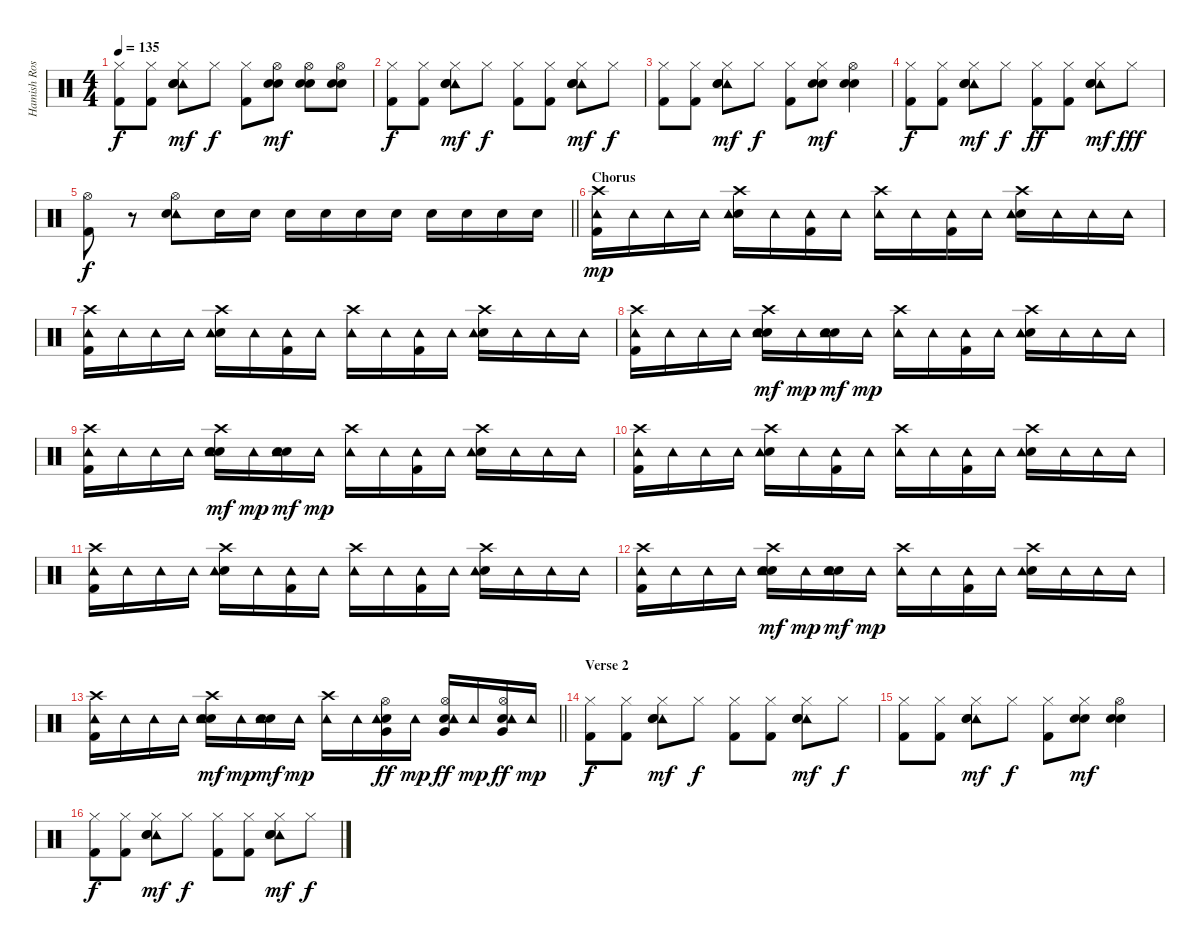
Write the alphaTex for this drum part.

\track ("Hamish Rosser (Drums Track)" "Hamish Ros") {instrument percussion}
\staff {score}
\articulation defaults
\ts (4 4)
\tempo 135
\clef neutral
\ks c
("Hi-Hat (closed)" "Kick (hit) 2").8{dy f} ("Hi-Hat (closed)" "Kick (hit) 2").8 ("Hi-Hat (closed)" "Tambourine (hit)" "Electric Snare (hit)" "Hand Clap (hit)").8{dy mf} "Hi-Hat (closed)".8{dy f} ("Hi-Hat (closed)" "Kick (hit) 2").8 ("Hi-Hat (open)" "Electric Snare (hit)" "Hand Clap (hit)").8{dy mf} ("Hi-Hat (open)" "Electric Snare (hit)" "Hand Clap (hit)").8 ("Hi-Hat (open)" "Electric Snare (hit)" "Hand Clap (hit)").8 |
("Hi-Hat (closed)" "Kick (hit) 2").8{dy f} ("Hi-Hat (closed)" "Kick (hit) 2").8 ("Hi-Hat (closed)" "Tambourine (hit)" "Electric Snare (hit)" "Hand Clap (hit)").8{dy mf} "Hi-Hat (closed)".8{dy f} ("Hi-Hat (closed)" "Kick (hit) 2").8 ("Hi-Hat (closed)" "Kick (hit) 2").8 ("Hi-Hat (closed)" "Tambourine (hit)" "Electric Snare (hit)" "Hand Clap (hit)").8{dy mf} "Hi-Hat (closed)".8{dy f} |
("Hi-Hat (closed)" "Kick (hit) 2").8 ("Hi-Hat (closed)" "Kick (hit) 2").8 ("Hi-Hat (closed)" "Tambourine (hit)" "Electric Snare (hit)" "Hand Clap (hit)").8{dy mf} "Hi-Hat (closed)".8{dy f} ("Hi-Hat (closed)" "Kick (hit) 2").8 ("Hi-Hat (closed)" "Electric Snare (hit)" "Hand Clap (hit)").8{dy mf} ("Hi-Hat (open)" "Electric Snare (hit)" "Hand Clap (hit)").4 |
("Hi-Hat (closed)" "Kick (hit) 2").8{dy f} ("Hi-Hat (closed)" "Kick (hit) 2").8 ("Hi-Hat (closed)" "Tambourine (hit)" "Electric Snare (hit)" "Hand Clap (hit)").8{dy mf} "Hi-Hat (closed)".8{dy f} ("Hi-Hat (closed)" "Kick (hit) 2").8{dy ff} ("Hi-Hat (closed)" "Kick (hit) 2").8 ("Hi-Hat (closed)" "Tambourine (hit)" "Electric Snare (hit)" "Hand Clap (hit)").8{dy mf} "Hi-Hat (closed)".8{dy fff} |
\barLineRight lightlight
("Hi-Hat (open)" "Kick (hit) 2").8{dy f} r.8 ("Hi-Hat (open)" "Tambourine (hit)" "Electric Snare (hit)").8 "Electric Snare (hit)".16 "Electric Snare (hit)".16 "Electric Snare (hit)".16 "Electric Snare (hit)".16 "Electric Snare (hit)".16 "Electric Snare (hit)".16 "Electric Snare (hit)".16 "Electric Snare (hit)".16 "Electric Snare (hit)".16 "Electric Snare (hit)".16 |
\section ("" "Chorus")
("Crash high (hit)" "Tambourine (hit)" "Kick (hit) 2").16{dy mp} "Tambourine (hit)".16 "Tambourine (hit)".16 "Tambourine (hit)".16 ("Crash high (hit)" "Electric Snare (hit)" "Tambourine (hit)").16 "Tambourine (hit)".16 ("Tambourine (hit)" "Kick (hit) 2").16 "Tambourine (hit)".16 ("Crash high (hit)" "Tambourine (hit)").16 "Tambourine (hit)".16 ("Tambourine (hit)" "Kick (hit) 2").16 "Tambourine (hit)".16 ("Crash high (hit)" "Electric Snare (hit)" "Tambourine (hit)").16 "Tambourine (hit)".16 "Tambourine (hit)".16 "Tambourine (hit)".16 |
("Crash high (hit)" "Tambourine (hit)" "Kick (hit) 2").16 "Tambourine (hit)".16 "Tambourine (hit)".16 "Tambourine (hit)".16 ("Crash high (hit)" "Electric Snare (hit)" "Tambourine (hit)").16 "Tambourine (hit)".16 ("Tambourine (hit)" "Kick (hit) 2").16 "Tambourine (hit)".16 ("Crash high (hit)" "Tambourine (hit)").16 "Tambourine (hit)".16 ("Tambourine (hit)" "Kick (hit) 2").16 "Tambourine (hit)".16 ("Crash high (hit)" "Electric Snare (hit)" "Tambourine (hit)").16 "Tambourine (hit)".16 "Tambourine (hit)".16 "Tambourine (hit)".16 |
("Crash high (hit)" "Tambourine (hit)" "Kick (hit) 2").16 "Tambourine (hit)".16 "Tambourine (hit)".16 "Tambourine (hit)".16 ("Crash high (hit)" "Electric Snare (hit)" "Tambourine (hit)" "Hand Clap (hit)").16{dy mf} "Tambourine (hit)".16{dy mp} ("Electric Snare (hit)" "Tambourine (hit)" "Hand Clap (hit)").16{dy mf} "Tambourine (hit)".16{dy mp} ("Crash high (hit)" "Tambourine (hit)").16 "Tambourine (hit)".16 ("Tambourine (hit)" "Kick (hit) 2").16 "Tambourine (hit)".16 ("Crash high (hit)" "Electric Snare (hit)" "Tambourine (hit)").16 "Tambourine (hit)".16 "Tambourine (hit)".16 "Tambourine (hit)".16 |
("Crash high (hit)" "Tambourine (hit)" "Kick (hit) 2").16 "Tambourine (hit)".16 "Tambourine (hit)".16 "Tambourine (hit)".16 ("Crash high (hit)" "Electric Snare (hit)" "Tambourine (hit)" "Hand Clap (hit)").16{dy mf} "Tambourine (hit)".16{dy mp} ("Electric Snare (hit)" "Tambourine (hit)" "Hand Clap (hit)").16{dy mf} "Tambourine (hit)".16{dy mp} ("Crash high (hit)" "Tambourine (hit)").16 "Tambourine (hit)".16 ("Tambourine (hit)" "Kick (hit) 2").16 "Tambourine (hit)".16 ("Crash high (hit)" "Electric Snare (hit)" "Tambourine (hit)").16 "Tambourine (hit)".16 "Tambourine (hit)".16 "Tambourine (hit)".16 |
("Crash high (hit)" "Tambourine (hit)" "Kick (hit) 2").16 "Tambourine (hit)".16 "Tambourine (hit)".16 "Tambourine (hit)".16 ("Crash high (hit)" "Electric Snare (hit)" "Tambourine (hit)").16 "Tambourine (hit)".16 ("Tambourine (hit)" "Kick (hit) 2").16 "Tambourine (hit)".16 ("Crash high (hit)" "Tambourine (hit)").16 "Tambourine (hit)".16 ("Tambourine (hit)" "Kick (hit) 2").16 "Tambourine (hit)".16 ("Crash high (hit)" "Electric Snare (hit)" "Tambourine (hit)").16 "Tambourine (hit)".16 "Tambourine (hit)".16 "Tambourine (hit)".16 |
("Crash high (hit)" "Tambourine (hit)" "Kick (hit) 2").16 "Tambourine (hit)".16 "Tambourine (hit)".16 "Tambourine (hit)".16 ("Crash high (hit)" "Electric Snare (hit)" "Tambourine (hit)").16 "Tambourine (hit)".16 ("Tambourine (hit)" "Kick (hit) 2").16 "Tambourine (hit)".16 ("Crash high (hit)" "Tambourine (hit)").16 "Tambourine (hit)".16 ("Tambourine (hit)" "Kick (hit) 2").16 "Tambourine (hit)".16 ("Crash high (hit)" "Electric Snare (hit)" "Tambourine (hit)").16 "Tambourine (hit)".16 "Tambourine (hit)".16 "Tambourine (hit)".16 |
("Crash high (hit)" "Tambourine (hit)" "Kick (hit) 2").16 "Tambourine (hit)".16 "Tambourine (hit)".16 "Tambourine (hit)".16 ("Crash high (hit)" "Electric Snare (hit)" "Tambourine (hit)" "Hand Clap (hit)").16{dy mf} "Tambourine (hit)".16{dy mp} ("Electric Snare (hit)" "Tambourine (hit)" "Hand Clap (hit)").16{dy mf} "Tambourine (hit)".16{dy mp} ("Crash high (hit)" "Tambourine (hit)").16 "Tambourine (hit)".16 ("Tambourine (hit)" "Kick (hit) 2").16 "Tambourine (hit)".16 ("Crash high (hit)" "Electric Snare (hit)" "Tambourine (hit)").16 "Tambourine (hit)".16 "Tambourine (hit)".16 "Tambourine (hit)".16 |
\barLineRight lightlight
("Crash high (hit)" "Tambourine (hit)" "Kick (hit) 2").16 "Tambourine (hit)".16 "Tambourine (hit)".16 "Tambourine (hit)".16 ("Crash high (hit)" "Electric Snare (hit)" "Tambourine (hit)" "Hand Clap (hit)").16{dy mf} "Tambourine (hit)".16{dy mp} ("Electric Snare (hit)" "Tambourine (hit)" "Hand Clap (hit)").16{dy mf} "Tambourine (hit)".16{dy mp} ("Crash high (hit)" "Tambourine (hit)").16 "Tambourine (hit)".16 ("Hi-Hat (open)" "Electric Snare (hit)" "Tambourine (hit)" "Very Low Tom (hit)").16{dy ff} "Tambourine (hit)".16{dy mp} ("Hi-Hat (open)" "Electric Snare (hit)" "Tambourine (hit)" "Very Low Tom (hit)").16{dy ff} "Tambourine (hit)".16{dy mp} ("Hi-Hat (open)" "Electric Snare (hit)" "Tambourine (hit)" "Very Low Tom (hit)").16{dy ff} "Tambourine (hit)".16{dy mp} |
\section ("" "Verse 2")
("Hi-Hat (closed)" "Kick (hit) 2").8{dy f} ("Hi-Hat (closed)" "Kick (hit) 2").8 ("Hi-Hat (closed)" "Tambourine (hit)" "Electric Snare (hit)" "Hand Clap (hit)").8{dy mf} "Hi-Hat (closed)".8{dy f} ("Hi-Hat (closed)" "Kick (hit) 2").8 ("Hi-Hat (closed)" "Kick (hit) 2").8 ("Hi-Hat (closed)" "Tambourine (hit)" "Electric Snare (hit)" "Hand Clap (hit)").8{dy mf} "Hi-Hat (closed)".8{dy f} |
("Hi-Hat (closed)" "Kick (hit) 2").8 ("Hi-Hat (closed)" "Kick (hit) 2").8 ("Hi-Hat (closed)" "Tambourine (hit)" "Electric Snare (hit)" "Hand Clap (hit)").8{dy mf} "Hi-Hat (closed)".8{dy f} ("Hi-Hat (closed)" "Kick (hit) 2").8 ("Hi-Hat (closed)" "Electric Snare (hit)" "Hand Clap (hit)").8{dy mf} ("Hi-Hat (open)" "Electric Snare (hit)" "Hand Clap (hit)").4 |
("Hi-Hat (closed)" "Kick (hit) 2").8{dy f} ("Hi-Hat (closed)" "Kick (hit) 2").8 ("Hi-Hat (closed)" "Tambourine (hit)" "Electric Snare (hit)" "Hand Clap (hit)").8{dy mf} "Hi-Hat (closed)".8{dy f} ("Hi-Hat (closed)" "Kick (hit) 2").8 ("Hi-Hat (closed)" "Kick (hit) 2").8 ("Hi-Hat (closed)" "Tambourine (hit)" "Electric Snare (hit)" "Hand Clap (hit)").8{dy mf} "Hi-Hat (closed)".8{dy f}
